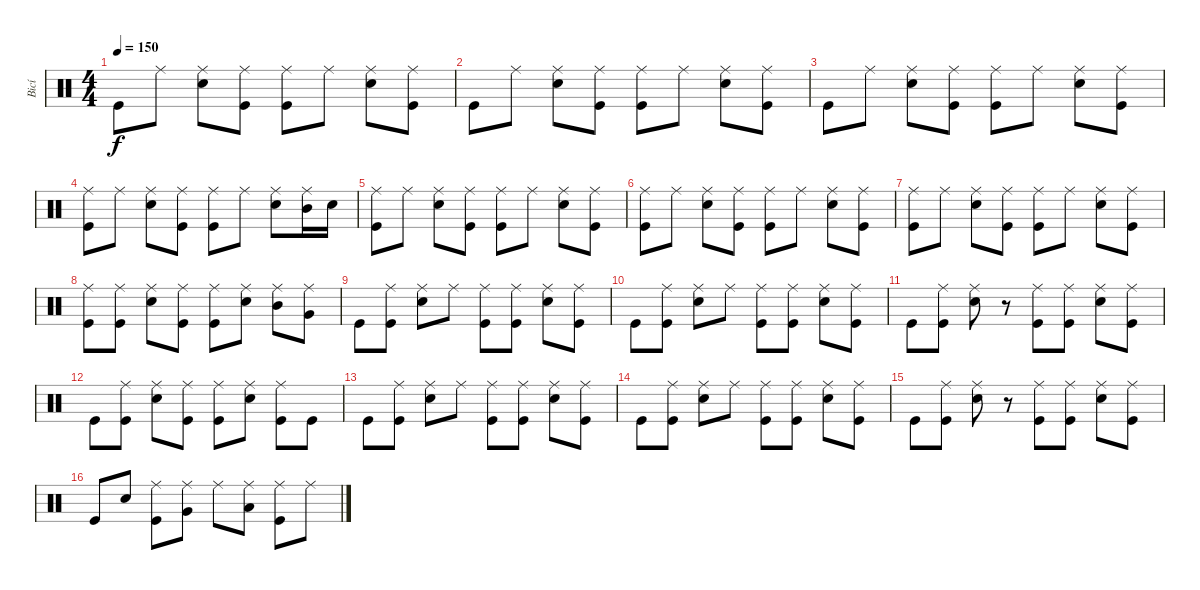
\track ("Bicí" "Bicí") {instrument percussion}
\staff {score}
\articulation defaults
\ts (4 4)
\tempo 150
\clef neutral
\ks c "Kick (hit)".8{dy f} "Ride (middle)".8
("Ride (middle)" "Snare (hit) 2").8 ("Ride (middle)" "Kick (hit)").8 ("Ride (middle)" "Kick (hit)").8 "Ride (middle)".8 ("Ride (middle)" "Snare (hit) 2").8 ("Ride (middle)" "Kick (hit)").8 |
"Kick (hit)".8 "Ride (middle)".8 ("Ride (middle)" "Snare (hit) 2").8 ("Ride (middle)" "Kick (hit)").8 ("Ride (middle)" "Kick (hit)").8 "Ride (middle)".8 ("Ride (middle)" "Snare (hit) 2").8 ("Ride (middle)" "Kick (hit)").8 |
"Kick (hit)".8 "Ride (middle)".8 ("Ride (middle)" "Snare (hit) 2").8 ("Ride (middle)" "Kick (hit)").8 ("Ride (middle)" "Kick (hit)").8 "Ride (middle)".8 ("Ride (middle)" "Snare (hit) 2").8 ("Ride (middle)" "Kick (hit)").8 |
("Ride (middle)" "Kick (hit)").8 "Ride (middle)".8 ("Ride (middle)" "Snare (hit) 2").8 ("Ride (middle)" "Kick (hit)").8 ("Ride (middle)" "Kick (hit)").8 "Ride (middle)".8 ("Ride (middle)" "Snare (hit) 2").8 ("Ride (middle)" "Mid Tom (hit)").16 "Snare (hit) 2".16 |
("Ride (middle)" "Kick (hit)").8 "Ride (middle)".8 ("Ride (middle)" "Snare (hit) 2").8 ("Ride (middle)" "Kick (hit)").8 ("Ride (middle)" "Kick (hit)").8 "Ride (middle)".8 ("Ride (middle)" "Snare (hit) 2").8 ("Ride (middle)" "Kick (hit)").8 |
("Ride (middle)" "Kick (hit)").8 "Ride (middle)".8 ("Ride (middle)" "Snare (hit) 2").8 ("Ride (middle)" "Kick (hit)").8 ("Ride (middle)" "Kick (hit)").8 "Ride (middle)".8 ("Ride (middle)" "Snare (hit) 2").8 ("Ride (middle)" "Kick (hit)").8 |
("Ride (middle)" "Kick (hit)").8 "Ride (middle)".8 ("Ride (middle)" "Snare (hit) 2").8 ("Ride (middle)" "Kick (hit)").8 ("Ride (middle)" "Kick (hit)").8 "Ride (middle)".8 ("Ride (middle)" "Snare (hit) 2").8 ("Ride (middle)" "Kick (hit)").8 |
("Ride (middle)" "Kick (hit)").8 ("Ride (middle)" "Kick (hit)").8 ("Ride (middle)" "Snare (hit) 2").8 ("Ride (middle)" "Kick (hit)").8 ("Ride (middle)" "Kick (hit)").8 ("Ride (middle)" "Snare (hit) 2").8 ("Ride (middle)" "Mid Tom (hit)").8 ("Ride (middle)" "Very Low Tom (hit)").8 |
"Kick (hit)".8 ("Ride (middle)" "Kick (hit)").8 ("Ride (middle)" "Snare (hit) 2").8 "Ride (middle)".8 ("Ride (middle)" "Kick (hit)").8 ("Ride (middle)" "Kick (hit)").8 ("Ride (middle)" "Snare (hit) 2").8 ("Ride (middle)" "Kick (hit)").8 |
"Kick (hit)".8 ("Ride (middle)" "Kick (hit)").8 ("Ride (middle)" "Snare (hit) 2").8 "Ride (middle)".8 ("Ride (middle)" "Kick (hit)").8 ("Ride (middle)" "Kick (hit)").8 ("Ride (middle)" "Snare (hit) 2").8 ("Ride (middle)" "Kick (hit)").8 |
"Kick (hit)".8 ("Ride (middle)" "Kick (hit)").8 ("Ride (middle)" "Snare (hit) 2").8 r.8 ("Ride (middle)" "Kick (hit)").8 ("Ride (middle)" "Kick (hit)").8 ("Ride (middle)" "Snare (hit) 2").8 ("Ride (middle)" "Kick (hit)").8 |
"Kick (hit)".8 ("Ride (middle)" "Kick (hit)").8 ("Ride (middle)" "Snare (hit) 2").8 ("Ride (middle)" "Kick (hit)").8 ("Ride (middle)" "Kick (hit)").8 ("Ride (middle)" "Snare (hit) 2").8 ("Ride (middle)" "Kick (hit)").8 "Kick (hit)".8 |
"Kick (hit)".8 ("Ride (middle)" "Kick (hit)").8 ("Ride (middle)" "Snare (hit) 2").8 "Ride (middle)".8 ("Ride (middle)" "Kick (hit)").8 ("Ride (middle)" "Kick (hit)").8 ("Ride (middle)" "Snare (hit) 2").8 ("Ride (middle)" "Kick (hit)").8 |
"Kick (hit)".8 ("Ride (middle)" "Kick (hit)").8 ("Ride (middle)" "Snare (hit) 2").8 "Ride (middle)".8 ("Ride (middle)" "Kick (hit)").8 ("Ride (middle)" "Kick (hit)").8 ("Ride (middle)" "Snare (hit) 2").8 ("Ride (middle)" "Kick (hit)").8 |
"Kick (hit)".8 ("Ride (middle)" "Kick (hit)").8 ("Ride (middle)" "Snare (hit) 2").8 r.8 ("Ride (middle)" "Kick (hit)").8 ("Ride (middle)" "Kick (hit)").8 ("Ride (middle)" "Snare (hit) 2").8 ("Ride (middle)" "Kick (hit)").8 |
"Kick (hit)".8 "Snare (hit) 2".8 ("Ride (middle)" "Kick (hit)").8 ("Very Low Tom (hit)" "Ride (middle)").8 "Ride (middle)".8 ("Low Floor Tom (hit)" "Ride (middle)").8 ("Ride (middle)" "Kick (hit)").8 "Ride (middle)".8
